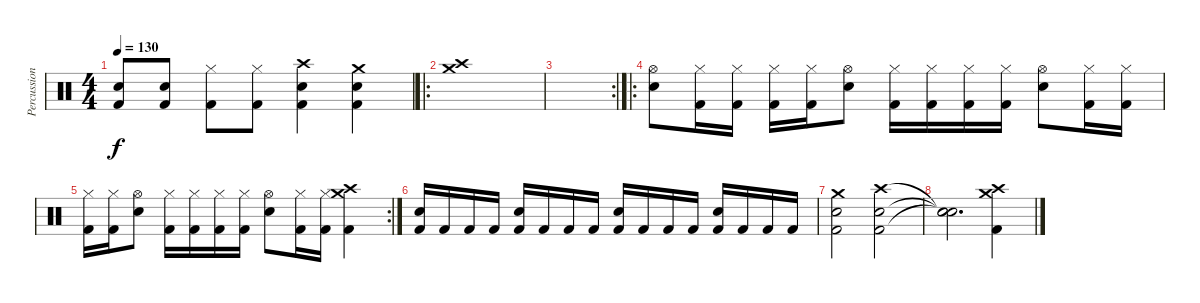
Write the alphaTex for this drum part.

\track ("Percussioni" "Percussion") {instrument percussion}
\staff {score}
\articulation defaults
\ts (4 4)
\tempo 130
\clef neutral
\ks c
("Electric Snare (hit)" "Kick (hit) 2").8{dy f} ("Electric Snare (hit)" "Kick (hit) 2").8 ("Kick (hit) 2" "Hi-Hat (closed)").8 ("Kick (hit) 2" "Hi-Hat (closed)").8 ("Crash high (hit)" "Electric Snare (hit)" "Kick (hit) 2").4 ("Crash medium (hit)" "Electric Snare (hit)" "Kick (hit) 2").4 |
\ro
("Crash medium (hit)" "Crash high (hit)").1 |
\rc 2
|
\ro
("Hi-Hat (open)" "Electric Snare (hit)").8 ("Kick (hit) 2" "Hi-Hat (closed)").16 ("Kick (hit) 2" "Hi-Hat (closed)").16 ("Kick (hit) 2" "Hi-Hat (closed)").16 ("Kick (hit) 2" "Hi-Hat (closed)").16 ("Hi-Hat (open)" "Electric Snare (hit)").8 ("Kick (hit) 2" "Hi-Hat (closed)").16 ("Kick (hit) 2" "Hi-Hat (closed)").16 ("Kick (hit) 2" "Hi-Hat (closed)").16 ("Kick (hit) 2" "Hi-Hat (closed)").16 ("Hi-Hat (open)" "Electric Snare (hit)").8 ("Kick (hit) 2" "Hi-Hat (closed)").16 ("Kick (hit) 2" "Hi-Hat (closed)").16 |
\rc 2
("Kick (hit) 2" "Hi-Hat (closed)").16 ("Kick (hit) 2" "Hi-Hat (closed)").16 ("Hi-Hat (open)" "Electric Snare (hit)").8 ("Kick (hit) 2" "Hi-Hat (closed)").16 ("Kick (hit) 2" "Hi-Hat (closed)").16 ("Kick (hit) 2" "Hi-Hat (closed)").16 ("Kick (hit) 2" "Hi-Hat (closed)").16 ("Hi-Hat (open)" "Electric Snare (hit)").8 ("Kick (hit) 2" "Hi-Hat (closed)").16 ("Kick (hit) 2" "Hi-Hat (closed)").16 ("Crash medium (hit)" "Crash high (hit)" "Kick (hit) 2").4 |
("Electric Snare (hit)" "Kick (hit) 2").16 "Kick (hit) 2".16 "Kick (hit) 2".16 "Kick (hit) 2".16 ("Electric Snare (hit)" "Kick (hit) 2").16 "Kick (hit) 2".16 "Kick (hit) 2".16 "Kick (hit) 2".16 ("Electric Snare (hit)" "Kick (hit) 2").16 "Kick (hit) 2".16 "Kick (hit) 2".16 "Kick (hit) 2".16 ("Electric Snare (hit)" "Kick (hit) 2").16 "Kick (hit) 2".16 "Kick (hit) 2".16 "Kick (hit) 2".16 |
("Crash medium (hit)" "Electric Snare (hit)" "Kick (hit) 2").2 ("Crash high (hit)" "Electric Snare (hit)" "Kick (hit) 2").2 |
("Snare (hit)"{t} "Snare (hit)"{t} "Snare (hit)"{t}).2{d} ("Crash medium (hit)" "Crash high (hit)" "Kick (hit) 2").4
